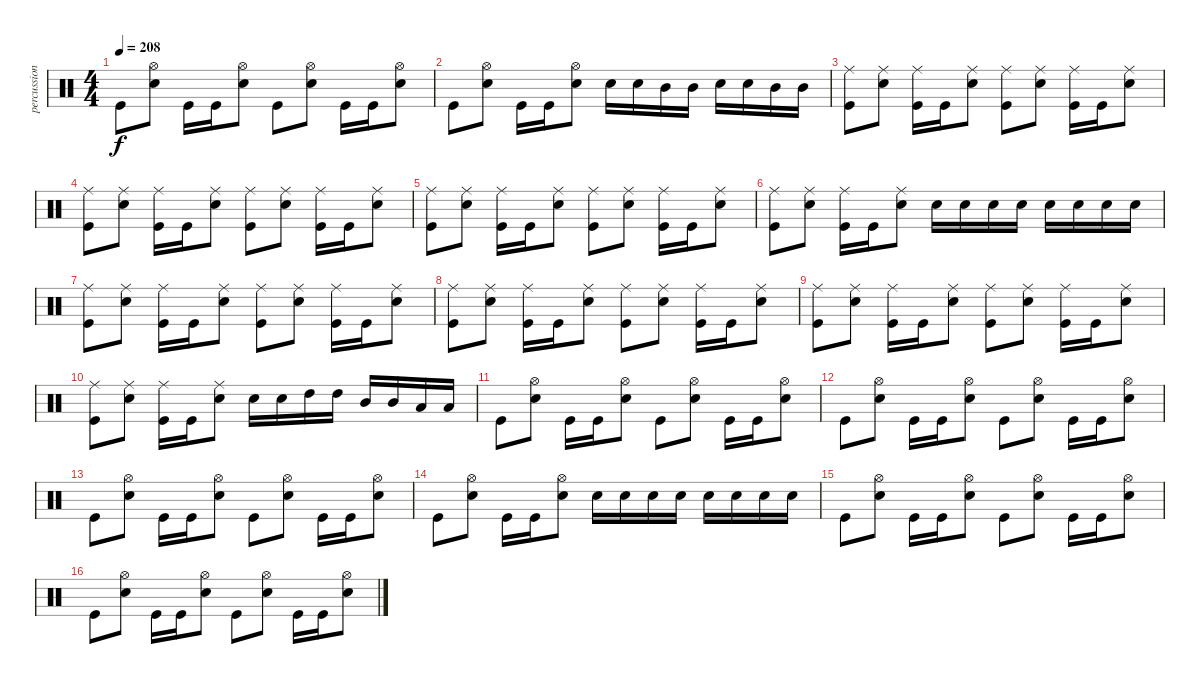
\track ("percussion" "percussion") {instrument percussion}
\staff {score}
\articulation defaults
\ts (4 4)
\tempo 208
\clef neutral
\ks c "Kick (hit)".8{dy f}
("Electric Snare (hit)" "Hi-Hat (open)").8 "Kick (hit)".16 "Kick (hit)".16 ("Electric Snare (hit)" "Hi-Hat (open)").8 "Kick (hit)".8 ("Electric Snare (hit)" "Hi-Hat (open)").8 "Kick (hit)".16 "Kick (hit)".16 ("Electric Snare (hit)" "Hi-Hat (open)").8 |
"Kick (hit)".8 ("Electric Snare (hit)" "Hi-Hat (open)").8 "Kick (hit)".16 "Kick (hit)".16 ("Electric Snare (hit)" "Hi-Hat (open)").8 "Electric Snare (hit)".16 "Electric Snare (hit)".16 "Mid Tom (hit)".16 "Mid Tom (hit)".16 "Electric Snare (hit)".16 "Electric Snare (hit)".16 "Mid Tom (hit)".16 "Mid Tom (hit)".16 |
("Kick (hit)" "Ride (middle)").8 ("Electric Snare (hit)" "Ride (middle)").8 ("Kick (hit)" "Ride (middle)").16 "Kick (hit)".16 ("Electric Snare (hit)" "Ride (middle)").8 ("Kick (hit)" "Ride (middle)").8 ("Electric Snare (hit)" "Ride (middle)").8 ("Kick (hit)" "Ride (middle)").16 "Kick (hit)".16 ("Electric Snare (hit)" "Ride (middle)").8 |
("Kick (hit)" "Ride (middle)").8 ("Electric Snare (hit)" "Ride (middle)").8 ("Kick (hit)" "Ride (middle)").16 "Kick (hit)".16 ("Electric Snare (hit)" "Ride (middle)").8 ("Kick (hit)" "Ride (middle)").8 ("Electric Snare (hit)" "Ride (middle)").8 ("Kick (hit)" "Ride (middle)").16 "Kick (hit)".16 ("Electric Snare (hit)" "Ride (middle)").8 |
("Kick (hit)" "Ride (middle)").8 ("Electric Snare (hit)" "Ride (middle)").8 ("Kick (hit)" "Ride (middle)").16 "Kick (hit)".16 ("Electric Snare (hit)" "Ride (middle)").8 ("Kick (hit)" "Ride (middle)").8 ("Electric Snare (hit)" "Ride (middle)").8 ("Kick (hit)" "Ride (middle)").16 "Kick (hit)".16 ("Electric Snare (hit)" "Ride (middle)").8 |
("Kick (hit)" "Ride (middle)").8 ("Electric Snare (hit)" "Ride (middle)").8 ("Kick (hit)" "Ride (middle)").16 "Kick (hit)".16 ("Electric Snare (hit)" "Ride (middle)").8 "Electric Snare (hit)".16 "Electric Snare (hit)".16 "Electric Snare (hit)".16 "Electric Snare (hit)".16 "Electric Snare (hit)".16 "Electric Snare (hit)".16 "Electric Snare (hit)".16 "Electric Snare (hit)".16 |
("Kick (hit)" "Ride (middle)").8 ("Electric Snare (hit)" "Ride (middle)").8 ("Kick (hit)" "Ride (middle)").16 "Kick (hit)".16 ("Electric Snare (hit)" "Ride (middle)").8 ("Kick (hit)" "Ride (middle)").8 ("Electric Snare (hit)" "Ride (middle)").8 ("Kick (hit)" "Ride (middle)").16 "Kick (hit)".16 ("Electric Snare (hit)" "Ride (middle)").8 |
("Kick (hit)" "Ride (middle)").8 ("Electric Snare (hit)" "Ride (middle)").8 ("Kick (hit)" "Ride (middle)").16 "Kick (hit)".16 ("Electric Snare (hit)" "Ride (middle)").8 ("Kick (hit)" "Ride (middle)").8 ("Electric Snare (hit)" "Ride (middle)").8 ("Kick (hit)" "Ride (middle)").16 "Kick (hit)".16 ("Electric Snare (hit)" "Ride (middle)").8 |
("Kick (hit)" "Ride (middle)").8 ("Electric Snare (hit)" "Ride (middle)").8 ("Kick (hit)" "Ride (middle)").16 "Kick (hit)".16 ("Electric Snare (hit)" "Ride (middle)").8 ("Kick (hit)" "Ride (middle)").8 ("Electric Snare (hit)" "Ride (middle)").8 ("Kick (hit)" "Ride (middle)").16 "Kick (hit)".16 ("Electric Snare (hit)" "Ride (middle)").8 |
("Kick (hit)" "Ride (middle)").8 ("Electric Snare (hit)" "Ride (middle)").8 ("Kick (hit)" "Ride (middle)").16 "Kick (hit)".16 ("Electric Snare (hit)" "Ride (middle)").8 "Electric Snare (hit)".16 "Electric Snare (hit)".16 "High Tom (hit)".16 "High Tom (hit)".16 "Mid Tom (hit)".16 "Mid Tom (hit)".16 "Low Tom (hit)".16 "Low Tom (hit)".16 |
"Kick (hit)".8 ("Electric Snare (hit)" "Hi-Hat (open)").8 "Kick (hit)".16 "Kick (hit)".16 ("Electric Snare (hit)" "Hi-Hat (open)").8 "Kick (hit)".8 ("Electric Snare (hit)" "Hi-Hat (open)").8 "Kick (hit)".16 "Kick (hit)".16 ("Electric Snare (hit)" "Hi-Hat (open)").8 |
"Kick (hit)".8 ("Electric Snare (hit)" "Hi-Hat (open)").8 "Kick (hit)".16 "Kick (hit)".16 ("Electric Snare (hit)" "Hi-Hat (open)").8 "Kick (hit)".8 ("Electric Snare (hit)" "Hi-Hat (open)").8 "Kick (hit)".16 "Kick (hit)".16 ("Electric Snare (hit)" "Hi-Hat (open)").8 |
"Kick (hit)".8 ("Electric Snare (hit)" "Hi-Hat (open)").8 "Kick (hit)".16 "Kick (hit)".16 ("Electric Snare (hit)" "Hi-Hat (open)").8 "Kick (hit)".8 ("Electric Snare (hit)" "Hi-Hat (open)").8 "Kick (hit)".16 "Kick (hit)".16 ("Electric Snare (hit)" "Hi-Hat (open)").8 |
"Kick (hit)".8 ("Electric Snare (hit)" "Hi-Hat (open)").8 "Kick (hit)".16 "Kick (hit)".16 ("Electric Snare (hit)" "Hi-Hat (open)").8 "Electric Snare (hit)".16 "Electric Snare (hit)".16 "Electric Snare (hit)".16 "Electric Snare (hit)".16 "Electric Snare (hit)".16 "Electric Snare (hit)".16 "Electric Snare (hit)".16 "Electric Snare (hit)".16 |
"Kick (hit)".8 ("Electric Snare (hit)" "Hi-Hat (open)").8 "Kick (hit)".16 "Kick (hit)".16 ("Electric Snare (hit)" "Hi-Hat (open)").8 "Kick (hit)".8 ("Electric Snare (hit)" "Hi-Hat (open)").8 "Kick (hit)".16 "Kick (hit)".16 ("Electric Snare (hit)" "Hi-Hat (open)").8 |
"Kick (hit)".8 ("Electric Snare (hit)" "Hi-Hat (open)").8 "Kick (hit)".16 "Kick (hit)".16 ("Electric Snare (hit)" "Hi-Hat (open)").8 "Kick (hit)".8 ("Electric Snare (hit)" "Hi-Hat (open)").8 "Kick (hit)".16 "Kick (hit)".16 ("Electric Snare (hit)" "Hi-Hat (open)").8
